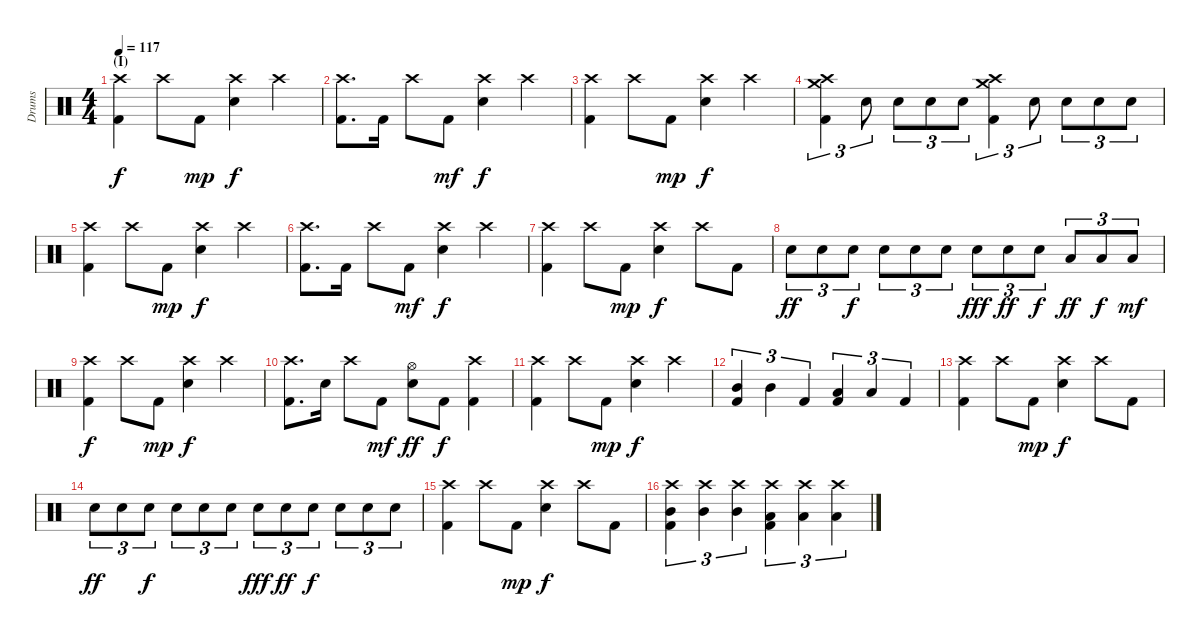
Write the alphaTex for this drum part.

\track ("Drums" "Drums") {instrument percussion}
\staff {score}
\articulation defaults
\ts (4 4)
\section ("" "(I)")
\tempo 117
\clef neutral
\ks c
("Crash high (hit)" "Kick (hit) 2").4{dy f} "Crash high (hit)".8 "Kick (hit) 2".8{dy mp} ("Crash high (hit)" "Snare (hit) 2").4{dy f} "Crash high (hit)".4 |
("Crash high (hit)" "Kick (hit) 2").8{d} "Kick (hit) 2".16 "Crash high (hit)".8 "Kick (hit) 2".8{dy mf} ("Crash high (hit)" "Snare (hit) 2").4{dy f} "Crash high (hit)".4 |
("Crash high (hit)" "Kick (hit) 2").4 "Crash high (hit)".8 "Kick (hit) 2".8{dy mp} ("Crash high (hit)" "Snare (hit) 2").4{dy f} "Crash high (hit)".4 |
("Crash high (hit)" "Crash medium (hit)" "Kick (hit) 2").4{tu (3 2)} "Snare (hit) 2".8{tu (3 2)} "Snare (hit) 2".8{tu (3 2)} "Snare (hit) 2".8{tu (3 2)} "Snare (hit) 2".8{tu (3 2)} ("Crash high (hit)" "Crash medium (hit)" "Kick (hit) 2").4{tu (3 2)} "Snare (hit) 2".8{tu (3 2)} "Snare (hit) 2".8{tu (3 2)} "Snare (hit) 2".8{tu (3 2)} "Snare (hit) 2".8{tu (3 2)} |
("Crash high (hit)" "Kick (hit) 2").4 "Crash high (hit)".8 "Kick (hit) 2".8{dy mp} ("Crash high (hit)" "Snare (hit) 2").4{dy f} "Crash high (hit)".4 |
("Crash high (hit)" "Kick (hit) 2").8{d} "Kick (hit) 2".16 "Crash high (hit)".8 "Kick (hit) 2".8{dy mf} ("Crash high (hit)" "Snare (hit) 2").4{dy f} "Crash high (hit)".4 |
("Crash high (hit)" "Kick (hit) 2").4 "Crash high (hit)".8 "Kick (hit) 2".8{dy mp} ("Crash high (hit)" "Snare (hit) 2").4{dy f} "Crash high (hit)".8 "Kick (hit) 2".8 |
"Snare (hit) 2".8{tu (3 2) dy ff} "Snare (hit) 2".8{tu (3 2)} "Snare (hit) 2".8{tu (3 2) dy f} "Snare (hit) 2".8{tu (3 2)} "Snare (hit) 2".8{tu (3 2)} "Snare (hit) 2".8{tu (3 2)} "Snare (hit) 2".8{tu (3 2) dy fff} "Snare (hit) 2".8{tu (3 2) dy ff} "Snare (hit) 2".8{tu (3 2) dy f} "Low Tom (hit)".8{tu (3 2) dy ff} "Low Tom (hit)".8{tu (3 2) dy f} "Low Tom (hit)".8{tu (3 2) dy mf} |
("Crash high (hit)" "Kick (hit) 2").4{dy f} "Crash high (hit)".8 "Kick (hit) 2".8{dy mp} ("Crash high (hit)" "Snare (hit) 2").4{dy f} "Crash high (hit)".4 |
("Crash high (hit)" "Kick (hit) 2").8{d} "Snare (hit) 2".16 "Crash high (hit)".8 "Kick (hit) 2".8{dy mf} ("Hi-Hat (open)" "Snare (hit) 2").8{dy ff} "Kick (hit) 2".8{dy f} ("Crash high (hit)" "Kick (hit) 2").4 |
("Crash high (hit)" "Kick (hit) 2").4 "Crash high (hit)".8 "Kick (hit) 2".8{dy mp} ("Crash high (hit)" "Snare (hit) 2").4{dy f} "Crash high (hit)".4 |
("Mid Tom (hit)" "Kick (hit) 2").4{tu (3 2)} "Mid Tom (hit)".4{tu (3 2)} "Kick (hit) 2".4{tu (3 2)} ("Low Tom (hit)" "Kick (hit) 2").4{tu (3 2)} "Low Tom (hit)".4{tu (3 2)} "Kick (hit) 2".4{tu (3 2)} |
("Crash high (hit)" "Kick (hit) 2").4 "Crash high (hit)".8 "Kick (hit) 2".8{dy mp} ("Crash high (hit)" "Snare (hit) 2").4{dy f} "Crash high (hit)".8 "Kick (hit) 2".8 |
"Snare (hit) 2".8{tu (3 2) dy ff} "Snare (hit) 2".8{tu (3 2)} "Snare (hit) 2".8{tu (3 2) dy f} "Snare (hit) 2".8{tu (3 2)} "Snare (hit) 2".8{tu (3 2)} "Snare (hit) 2".8{tu (3 2)} "Snare (hit) 2".8{tu (3 2) dy fff} "Snare (hit) 2".8{tu (3 2) dy ff} "Snare (hit) 2".8{tu (3 2) dy f} "Snare (hit) 2".8{tu (3 2)} "Snare (hit) 2".8{tu (3 2)} "Snare (hit) 2".8{tu (3 2)} |
("Crash high (hit)" "Kick (hit) 2").4 "Crash high (hit)".8 "Kick (hit) 2".8{dy mp} ("Crash high (hit)" "Snare (hit) 2").4{dy f} "Crash high (hit)".8 "Kick (hit) 2".8 |
("Crash high (hit)" "Mid Tom (hit)" "Kick (hit) 2").4{tu (3 2)} ("Crash high (hit)" "Mid Tom (hit)").4{tu (3 2)} ("Crash high (hit)" "Mid Tom (hit)").4{tu (3 2)} ("Crash high (hit)" "Low Tom (hit)" "Kick (hit) 2").4{tu (3 2)} ("Crash high (hit)" "Low Tom (hit)").4{tu (3 2)} ("Crash high (hit)" "Low Tom (hit)").4{tu (3 2)}
